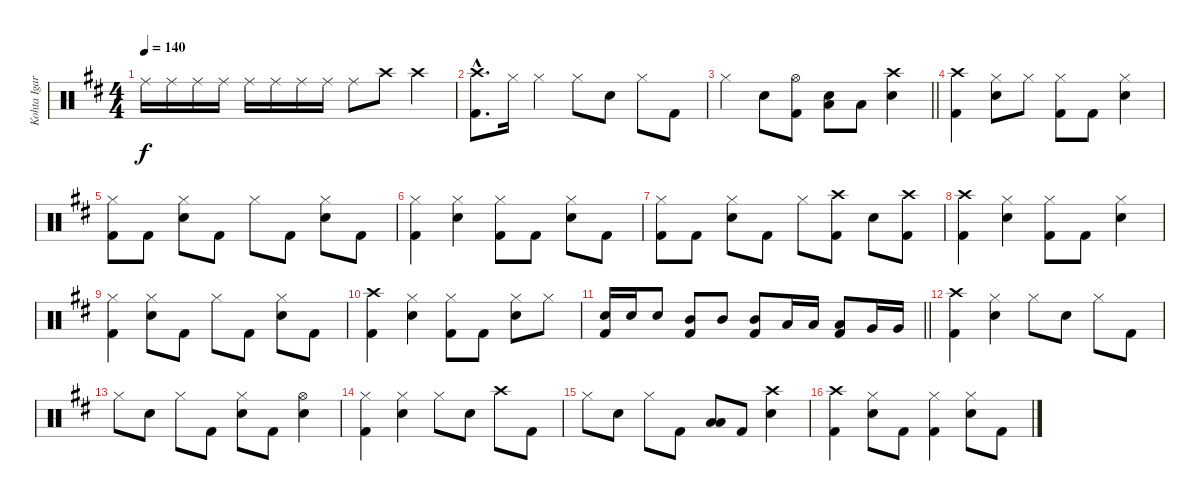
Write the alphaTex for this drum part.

\track ("Kohta Igarashi" "Kohta Igar") {instrument percussion}
\staff {score}
\articulation defaults
\ts (4 4)
\tempo 140
\clef neutral
\ks d "Ride (middle)".16{dy f} "Ride (middle)".16 "Ride (middle)".16 "Ride (middle)".16 "Ride (middle)".16 "Ride (middle)".16 "Ride (middle)".16 "Ride (middle)".16 "Ride (middle)".8 "Crash high (hit)".8 "Crash high (hit)".4
|
("Crash high (hit)"{hac} "Kick (hit) 2"{hac}).8{d} "Hi-Hat (closed)".16 "Hi-Hat (closed)".4 "Hi-Hat (closed)".8 "Electric Snare (hit)".8 "Hi-Hat (closed)".8 "Kick (hit) 2".8 |
\barLineRight lightlight "Hi-Hat (closed)".4 "Electric Snare (hit)".8
("Hi-Hat (open)" "Kick (hit) 2").8 ("Electric Snare (hit)" "Low Floor Tom (hit)").8 "Low Floor Tom (hit)".8 ("Crash high (hit)" "Electric Snare (hit)").4 |
("Crash high (hit)" "Kick (hit) 2").4 ("Hi-Hat (closed)" "Electric Snare (hit)").8 "Hi-Hat (closed)".8 ("Hi-Hat (closed)" "Kick (hit) 2").8 "Kick (hit) 2".8 ("Hi-Hat (closed)" "Electric Snare (hit)").4 |
("Hi-Hat (closed)" "Kick (hit) 2").8 "Kick (hit) 2".8 ("Hi-Hat (closed)" "Electric Snare (hit)").8 "Kick (hit) 2".8 "Hi-Hat (closed)".8 "Kick (hit) 2".8 ("Hi-Hat (closed)" "Electric Snare (hit)").8 "Kick (hit) 2".8 |
("Hi-Hat (closed)" "Kick (hit) 2").4 ("Hi-Hat (closed)" "Electric Snare (hit)").4 ("Hi-Hat (closed)" "Kick (hit) 2").8 "Kick (hit) 2".8 ("Hi-Hat (closed)" "Electric Snare (hit)").8 "Kick (hit) 2".8 |
("Hi-Hat (closed)" "Kick (hit) 2").8 "Kick (hit) 2".8 ("Hi-Hat (closed)" "Electric Snare (hit)").8 "Kick (hit) 2".8 "Hi-Hat (closed)".8 ("Crash high (hit)" "Kick (hit) 2").8 "Electric Snare (hit)".8 ("Crash high (hit)" "Kick (hit) 2").8 |
("Crash high (hit)" "Kick (hit) 2").4 ("Hi-Hat (closed)" "Electric Snare (hit)").4 ("Hi-Hat (closed)" "Kick (hit) 2").8 "Kick (hit) 2".8 ("Hi-Hat (closed)" "Electric Snare (hit)").4 |
("Hi-Hat (closed)" "Kick (hit) 2").4 ("Hi-Hat (closed)" "Electric Snare (hit)").8 "Kick (hit) 2".8 "Hi-Hat (closed)".8 "Kick (hit) 2".8 ("Hi-Hat (closed)" "Electric Snare (hit)").8 "Kick (hit) 2".8 |
("Crash high (hit)" "Kick (hit) 2").4 ("Hi-Hat (closed)" "Electric Snare (hit)").4 ("Hi-Hat (closed)" "Kick (hit) 2").8 "Kick (hit) 2".8 ("Hi-Hat (closed)" "Electric Snare (hit)").8 "Hi-Hat (closed)".8 |
\barLineRight lightlight
("Electric Snare (hit)" "Kick (hit) 2").16 "Electric Snare (hit)".16 "Electric Snare (hit)".8 ("Mid Tom (hit)" "Kick (hit) 2").8 "Mid Tom (hit)".8 ("Mid Tom (hit)" "Kick (hit) 2").8 "Low Tom (hit)".16 "Low Tom (hit)".16 ("Low Tom (hit)" "Kick (hit) 2").8 "Very Low Tom (hit)".16 "Very Low Tom (hit)".16 |
("Crash high (hit)" "Kick (hit) 2").4 ("Hi-Hat (closed)" "Electric Snare (hit)").4 "Hi-Hat (closed)".8 "Electric Snare (hit)".8 "Hi-Hat (closed)".8 "Kick (hit) 2".8 |
"Hi-Hat (closed)".8 "Electric Snare (hit)".8 "Hi-Hat (closed)".8 "Kick (hit) 2".8 ("Hi-Hat (closed)" "Electric Snare (hit)").8 "Kick (hit) 2".8 ("Hi-Hat (open)" "Electric Snare (hit)").4 |
("Hi-Hat (closed)" "Kick (hit) 2").4 ("Hi-Hat (closed)" "Electric Snare (hit)").4 "Hi-Hat (closed)".8 "Electric Snare (hit)".8 "Crash high (hit)".8 "Kick (hit) 2".8 |
"Hi-Hat (closed)".8 "Electric Snare (hit)".8 "Hi-Hat (closed)".8 "Kick (hit) 2".8 ("Low Tom (hit)" "Low Tom (hit)").8 "Kick (hit) 2".8 ("Crash high (hit)" "Electric Snare (hit)").4 |
("Crash high (hit)" "Kick (hit) 2").4 ("Hi-Hat (closed)" "Electric Snare (hit)").8 "Kick (hit) 2".8 ("Hi-Hat (closed)" "Kick (hit) 2").4 ("Hi-Hat (closed)" "Electric Snare (hit)").8 "Kick (hit) 2".8
